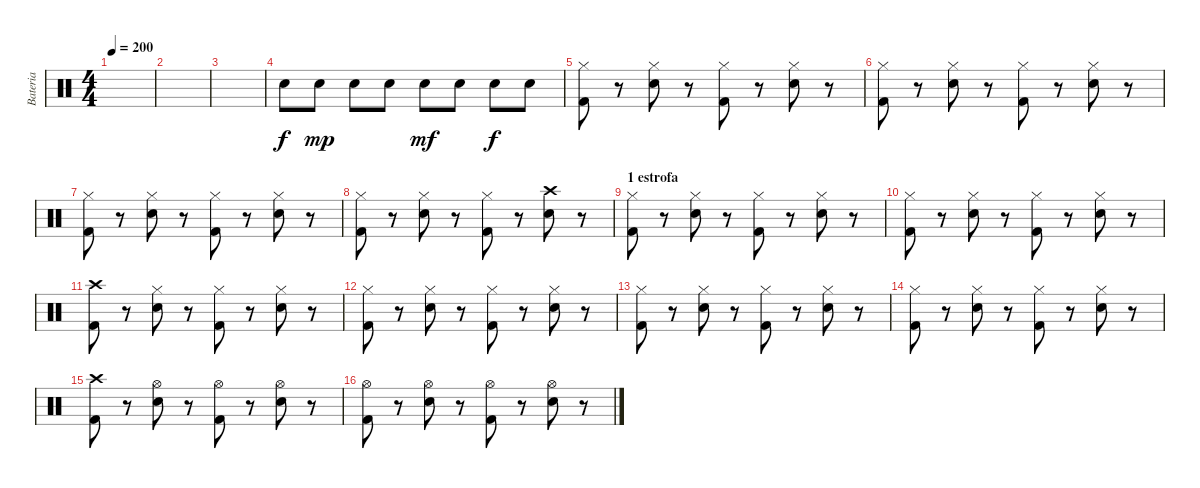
\track ("Bateria" "Bateria") {instrument percussion}
\staff {score}
\articulation defaults
\ts (4 4)
\tempo 200
\clef neutral
\ks c
|
|
|
"Snare (hit) 2".8 "Snare (hit) 2".8{dy mp} "Snare (hit) 2".8 "Snare (hit) 2".8 "Snare (hit) 2".8{dy mf} "Snare (hit) 2".8 "Snare (hit) 2".8{dy f} "Snare (hit) 2".8 |
("Hi-Hat (closed)" "Kick (hit) 2").8 r.8 ("Hi-Hat (closed)" "Snare (hit) 2").8 r.8 ("Hi-Hat (closed)" "Kick (hit) 2").8 r.8 ("Hi-Hat (closed)" "Snare (hit) 2").8 r.8 |
("Hi-Hat (closed)" "Kick (hit) 2").8 r.8 ("Hi-Hat (closed)" "Snare (hit) 2").8 r.8 ("Hi-Hat (closed)" "Kick (hit) 2").8 r.8 ("Hi-Hat (closed)" "Snare (hit) 2").8 r.8 |
("Hi-Hat (closed)" "Kick (hit) 2").8 r.8 ("Hi-Hat (closed)" "Snare (hit) 2").8 r.8 ("Hi-Hat (closed)" "Kick (hit) 2").8 r.8 ("Hi-Hat (closed)" "Snare (hit) 2").8 r.8 |
("Hi-Hat (closed)" "Kick (hit) 2").8 r.8 ("Hi-Hat (closed)" "Snare (hit) 2").8 r.8 ("Hi-Hat (closed)" "Kick (hit) 2").8 r.8 ("Crash high (hit)" "Snare (hit) 2").8 r.8 |
\section ("" "1 estrofa")
("Hi-Hat (closed)" "Kick (hit) 2").8 r.8 ("Hi-Hat (closed)" "Snare (hit) 2").8 r.8 ("Hi-Hat (closed)" "Kick (hit) 2").8 r.8 ("Hi-Hat (closed)" "Snare (hit) 2").8 r.8 |
("Hi-Hat (closed)" "Kick (hit) 2").8 r.8 ("Hi-Hat (closed)" "Snare (hit) 2").8 r.8 ("Hi-Hat (closed)" "Kick (hit) 2").8 r.8 ("Hi-Hat (closed)" "Snare (hit) 2").8 r.8 |
("Crash high (hit)" "Kick (hit) 2").8 r.8 ("Hi-Hat (closed)" "Snare (hit) 2").8 r.8 ("Hi-Hat (closed)" "Kick (hit) 2").8 r.8 ("Hi-Hat (closed)" "Snare (hit) 2").8 r.8 |
("Hi-Hat (closed)" "Kick (hit) 2").8 r.8 ("Hi-Hat (closed)" "Snare (hit) 2").8 r.8 ("Hi-Hat (closed)" "Kick (hit) 2").8 r.8 ("Hi-Hat (closed)" "Snare (hit) 2").8 r.8 |
("Hi-Hat (closed)" "Kick (hit) 2").8 r.8 ("Hi-Hat (closed)" "Snare (hit) 2").8 r.8 ("Hi-Hat (closed)" "Kick (hit) 2").8 r.8 ("Hi-Hat (closed)" "Snare (hit) 2").8 r.8 |
("Hi-Hat (closed)" "Kick (hit) 2").8 r.8 ("Hi-Hat (closed)" "Snare (hit) 2").8 r.8 ("Hi-Hat (closed)" "Kick (hit) 2").8 r.8 ("Hi-Hat (closed)" "Snare (hit) 2").8 r.8 |
("Crash high (hit)" "Kick (hit) 2").8 r.8 ("Hi-Hat (open)" "Snare (hit) 2").8 r.8 ("Hi-Hat (open)" "Kick (hit) 2").8 r.8 ("Hi-Hat (open)" "Snare (hit) 2").8 r.8 |
("Hi-Hat (open)" "Kick (hit) 2").8 r.8 ("Hi-Hat (open)" "Snare (hit) 2").8 r.8 ("Hi-Hat (open)" "Kick (hit) 2").8 r.8 ("Hi-Hat (open)" "Snare (hit) 2").8 r.8
